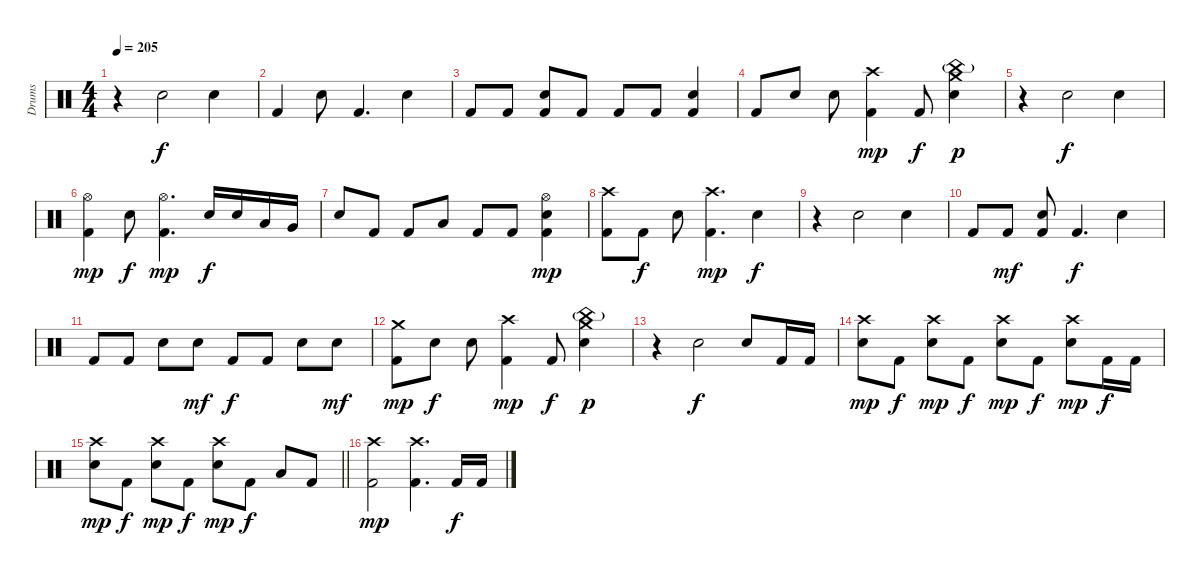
\track ("Drums" "Drums") {instrument percussion}
\staff {score}
\articulation defaults
\ts (4 4)
\tempo 205
\clef neutral
\ks c
r.4{dy f} "Electric Snare (hit)".2 "Electric Snare (hit)".4 |
"Kick (hit) 2".4 "Electric Snare (hit)".8 "Kick (hit) 2".4{d} "Electric Snare (hit)".4 |
"Kick (hit) 2".8 "Kick (hit) 2".8 ("Electric Snare (hit)" "Kick (hit) 2").8 "Kick (hit) 2".8 "Kick (hit) 2".8 "Kick (hit) 2".8 ("Electric Snare (hit)" "Kick (hit) 2").4 |
"Kick (hit) 2".8 "Electric Snare (hit)".8 "Electric Snare (hit)".8 ("Crash high (hit)" "Kick (hit) 2").4{dy mp} "Kick (hit) 2".8{dy f} ("Crash medium (hit)" "China (hit)"{g} "Electric Snare (hit)").4{dy p} |
r.4 "Electric Snare (hit)".2{dy f} "Electric Snare (hit)".4 |
("Hi-Hat (open)" "Kick (hit) 2").4{dy mp} "Electric Snare (hit)".8{dy f} ("Hi-Hat (open)" "Kick (hit) 2").4{d dy mp} "Electric Snare (hit)".16{dy f} "Electric Snare (hit)".16 "Low Tom (hit)".16 "Very Low Tom (hit)".16 |
"Electric Snare (hit)".8 "Kick (hit) 2".8 "Kick (hit) 2".8 "Low Tom (hit)".8 "Kick (hit) 2".8 "Kick (hit) 2".8 ("Hi-Hat (open)" "Electric Snare (hit)" "Kick (hit) 2").4{dy mp} |
("Crash high (hit)" "Kick (hit) 2").8 "Kick (hit) 2".8{dy f} "Electric Snare (hit)".8 ("Crash high (hit)" "Kick (hit) 2").4{d dy mp} "Electric Snare (hit)".4{dy f} |
r.4 "Electric Snare (hit)".2 "Electric Snare (hit)".4 |
"Kick (hit) 2".8 "Kick (hit) 2".8{dy mf} ("Electric Snare (hit)" "Kick (hit) 2").8 "Kick (hit) 2".4{d dy f} "Electric Snare (hit)".4 |
"Kick (hit) 2".8 "Kick (hit) 2".8 "Electric Snare (hit)".8 "Electric Snare (hit)".8{dy mf} "Kick (hit) 2".8{dy f} "Kick (hit) 2".8 "Electric Snare (hit)".8 "Electric Snare (hit)".8{dy mf} |
("Crash medium (hit)" "Kick (hit) 2").8{dy mp} "Electric Snare (hit)".8{dy f} "Electric Snare (hit)".8 ("Crash high (hit)" "Kick (hit) 2").4{dy mp} "Kick (hit) 2".8{dy f} ("Crash medium (hit)" "China (hit)"{g} "Electric Snare (hit)").4{dy p} |
r.4 "Electric Snare (hit)".2{dy f} "Electric Snare (hit)".8 "Kick (hit) 2".16 "Kick (hit) 2".16 |
("Crash high (hit)" "Electric Snare (hit)").8{dy mp} "Kick (hit) 2".8{dy f} ("Crash high (hit)" "Electric Snare (hit)").8{dy mp} "Kick (hit) 2".8{dy f} ("Crash high (hit)" "Electric Snare (hit)").8{dy mp} "Kick (hit) 2".8{dy f} ("Crash high (hit)" "Electric Snare (hit)").8{dy mp} "Kick (hit) 2".16{dy f} "Kick (hit) 2".16 |
\barLineRight lightlight
("Crash high (hit)" "Electric Snare (hit)").8{dy mp} "Kick (hit) 2".8{dy f} ("Crash high (hit)" "Electric Snare (hit)").8{dy mp} "Kick (hit) 2".8{dy f} ("Crash high (hit)" "Electric Snare (hit)").8{dy mp} "Kick (hit) 2".8{dy f} "Low Tom (hit)".8 "Kick (hit) 2".8 |
("Crash high (hit)" "Kick (hit) 2").2{dy mp} ("Crash high (hit)" "Kick (hit) 2").4{d} "Kick (hit) 2".16{dy f} "Kick (hit) 2".16
